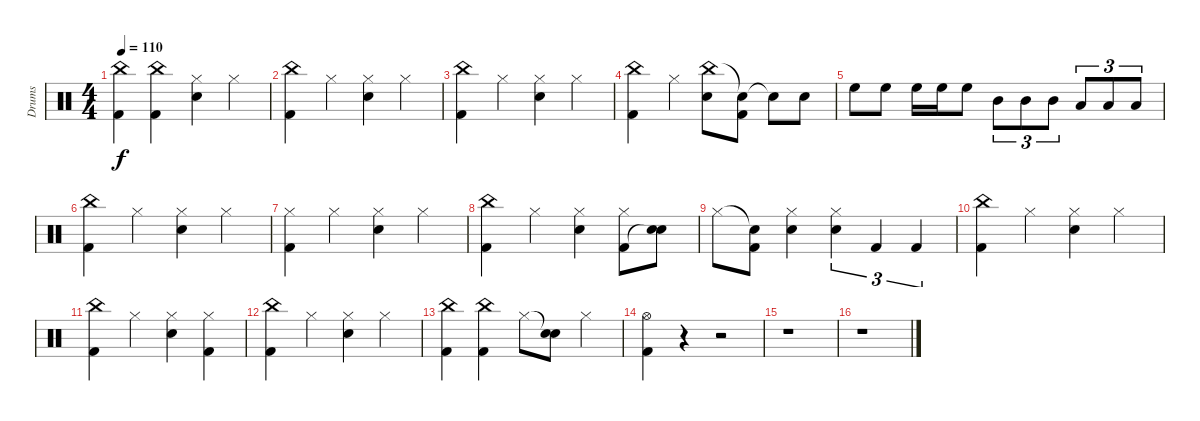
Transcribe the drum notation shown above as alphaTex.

\track ("Drums" "Drums") {instrument percussion}
\staff {score}
\articulation defaults
\ts (4 4)
\tempo 110
\clef neutral
\ks c
("China (hit)" "Kick (hit) 2").4{dy f} ("China (hit)" "Kick (hit) 2").4 ("Hi-Hat (closed)" "Snare (hit) 2").4 "Hi-Hat (closed)".4 |
("China (hit)" "Kick (hit) 2").4 "Hi-Hat (closed)".4 ("Hi-Hat (closed)" "Snare (hit) 2").4 "Hi-Hat (closed)".4 |
("China (hit)" "Kick (hit) 2").4 "Hi-Hat (closed)".4 ("Hi-Hat (closed)" "Snare (hit) 2").4 "Hi-Hat (closed)".4 |
("China (hit)" "Kick (hit) 2").4 "Hi-Hat (closed)".4 ("China (hit)" "Snare (hit) 2").8 ("Snare (hit)"{t} "Kick (hit) 2").8 "Snare (hit)"{t}.8 "Snare (hit) 2".8 |
"High Floor Tom (hit)".8 "High Floor Tom (hit)".8 "High Floor Tom (hit)".16 "High Floor Tom (hit)".16 "High Floor Tom (hit)".8 "Mid Tom (hit)".8{tu (3 2)} "Mid Tom (hit)".8{tu (3 2)} "Mid Tom (hit)".8{tu (3 2)} "Low Tom (hit)".8{tu (3 2)} "Low Tom (hit)".8{tu (3 2)} "Low Tom (hit)".8{tu (3 2)} |
("China (hit)" "Kick (hit) 2").4 "Hi-Hat (closed)".4 ("Hi-Hat (closed)" "Snare (hit) 2").4 "Hi-Hat (closed)".4 |
("Hi-Hat (closed)" "Kick (hit) 2").4 "Hi-Hat (closed)".4 ("Hi-Hat (closed)" "Snare (hit) 2").4 "Hi-Hat (closed)".4 |
("China (hit)" "Kick (hit) 2").4 "Hi-Hat (closed)".4 ("Hi-Hat (closed)" "Snare (hit) 2").4 ("Hi-Hat (closed)" "Kick (hit) 2").8 ("Snare (hit) 2" "Snare (hit)"{t}).8 |
"Hi-Hat (closed)".8 ("Snare (hit)"{t} "Kick (hit) 2").8 ("Hi-Hat (closed)" "Snare (hit) 2").4 ("Hi-Hat (closed)" "Snare (hit) 2").4{tu (3 2)} "Kick (hit) 2".4{tu (3 2)} "Kick (hit) 2".4{tu (3 2)} |
("China (hit)" "Kick (hit) 2").4 "Hi-Hat (closed)".4 ("Hi-Hat (closed)" "Snare (hit) 2").4 "Hi-Hat (closed)".4 |
("China (hit)" "Kick (hit) 2").4 "Hi-Hat (closed)".4 ("Hi-Hat (closed)" "Snare (hit) 2").4 ("Hi-Hat (closed)" "Kick (hit) 2").4 |
("China (hit)" "Kick (hit) 2").4 "Hi-Hat (closed)".4 ("Hi-Hat (closed)" "Snare (hit) 2").4 "Hi-Hat (closed)".4 |
("China (hit)" "Kick (hit) 2").4 ("China (hit)" "Kick (hit) 2").4 "Hi-Hat (closed)".8 ("Snare (hit)"{t} "Snare (hit) 2").8 "Hi-Hat (closed)".4 |
("Hi-Hat (open)" "Kick (hit) 2").4 r.4 r.2 |
r.1 |
r.1
